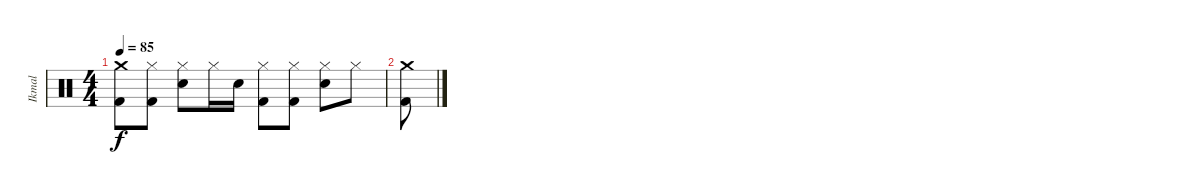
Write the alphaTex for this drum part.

\track ("Ikmal" "Ikmal") {instrument percussion}
\staff {score}
\articulation defaults
\ts (4 4)
\tempo 85
\clef neutral
\ks c
("Crash medium (hit)" "Kick (hit) 2").8{dy f} ("Hi-Hat (closed)" "Kick (hit) 2").8 ("Hi-Hat (closed)" "Electric Snare (hit)").8 "Hi-Hat (closed)".16 "Electric Snare (hit)".16 ("Hi-Hat (closed)" "Kick (hit) 2").8 ("Hi-Hat (closed)" "Kick (hit) 2").8 ("Hi-Hat (closed)" "Electric Snare (hit)").8 "Hi-Hat (closed)".8 |
("Crash medium (hit)" "Kick (hit) 2").8
